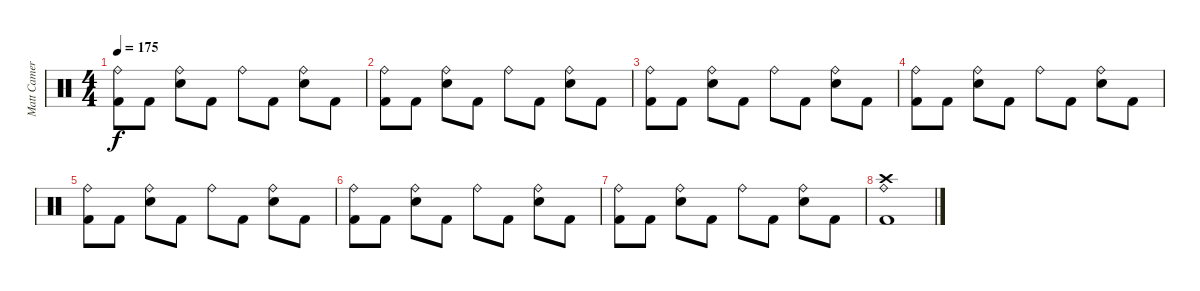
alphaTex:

\track ("Matt Cameron" "Matt Camer") {instrument percussion}
\staff {score}
\articulation defaults
\ts (4 4)
\tempo 175
\clef neutral
\ks c
("Ride (bell)" "Kick (hit) 2").8{dy f} "Kick (hit) 2".8 ("Ride (bell)" "Electric Snare (hit)").8 "Kick (hit) 2".8 "Ride (bell)".8 "Kick (hit) 2".8 ("Ride (bell)" "Electric Snare (hit)").8 "Kick (hit) 2".8 |
("Ride (bell)" "Kick (hit) 2").8 "Kick (hit) 2".8 ("Ride (bell)" "Electric Snare (hit)").8 "Kick (hit) 2".8 "Ride (bell)".8 "Kick (hit) 2".8 ("Ride (bell)" "Electric Snare (hit)").8 "Kick (hit) 2".8 |
("Ride (bell)" "Kick (hit) 2").8 "Kick (hit) 2".8 ("Ride (bell)" "Electric Snare (hit)").8 "Kick (hit) 2".8 "Ride (bell)".8 "Kick (hit) 2".8 ("Ride (bell)" "Electric Snare (hit)").8 "Kick (hit) 2".8 |
("Ride (bell)" "Kick (hit) 2").8 "Kick (hit) 2".8 ("Ride (bell)" "Electric Snare (hit)").8 "Kick (hit) 2".8 "Ride (bell)".8 "Kick (hit) 2".8 ("Ride (bell)" "Electric Snare (hit)").8 "Kick (hit) 2".8 |
("Ride (bell)" "Kick (hit) 2").8 "Kick (hit) 2".8 ("Ride (bell)" "Electric Snare (hit)").8 "Kick (hit) 2".8 "Ride (bell)".8 "Kick (hit) 2".8 ("Ride (bell)" "Electric Snare (hit)").8 "Kick (hit) 2".8 |
("Ride (bell)" "Kick (hit) 2").8 "Kick (hit) 2".8 ("Ride (bell)" "Electric Snare (hit)").8 "Kick (hit) 2".8 "Ride (bell)".8 "Kick (hit) 2".8 ("Ride (bell)" "Electric Snare (hit)").8 "Kick (hit) 2".8 |
("Ride (bell)" "Kick (hit) 2").8 "Kick (hit) 2".8 ("Ride (bell)" "Electric Snare (hit)").8 "Kick (hit) 2".8 "Ride (bell)".8 "Kick (hit) 2".8 ("Ride (bell)" "Electric Snare (hit)").8 "Kick (hit) 2".8 |
("Ride (bell)" "Crash high (hit)" "Kick (hit) 2").1
